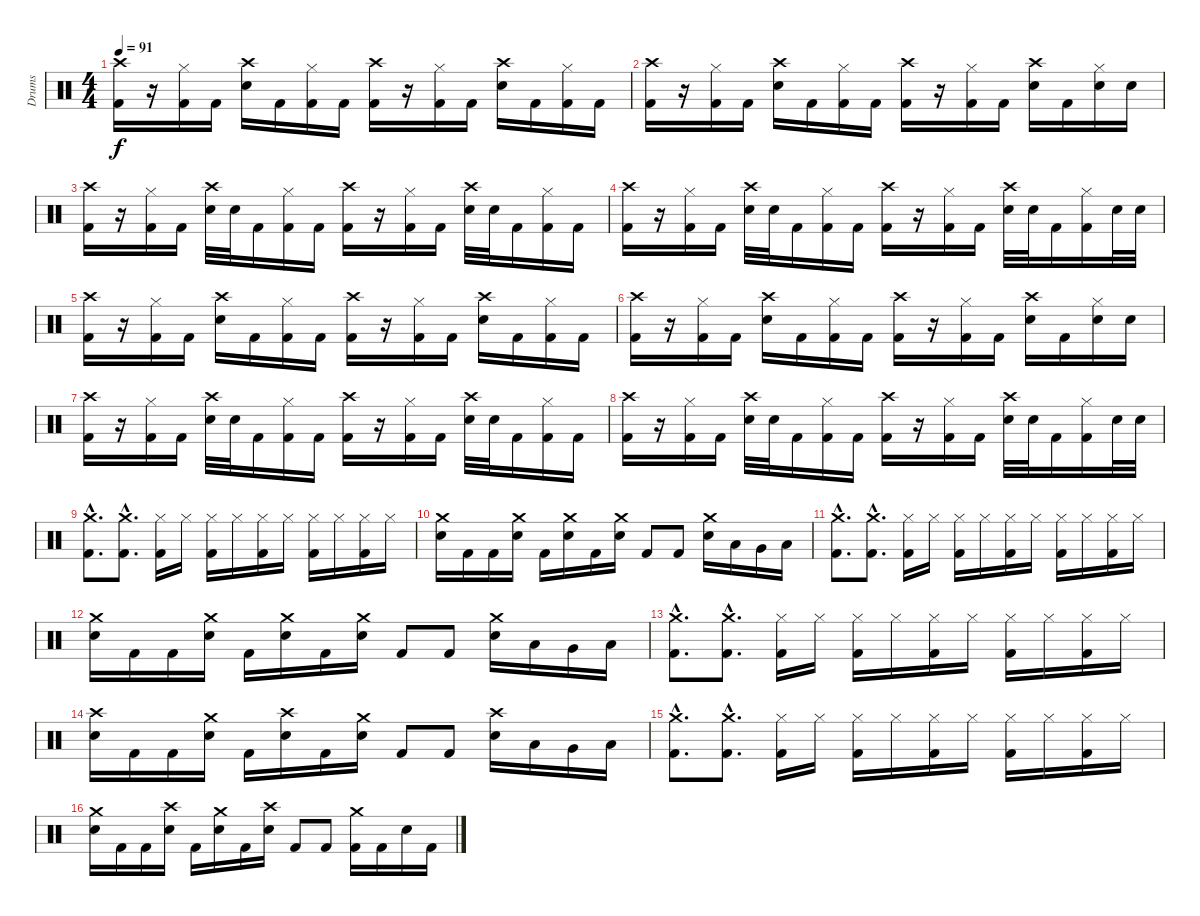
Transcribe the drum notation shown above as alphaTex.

\track ("Drums" "Drums") {instrument percussion}
\staff {score}
\articulation defaults
\ts (4 4)
\tempo 91
\clef neutral
\ks c
("Crash high (hit)" "Kick (hit) 2").16{dy f} r.16 ("Hi-Hat (closed)" "Kick (hit) 2").16 "Kick (hit) 2".16 ("Crash high (hit)" "Electric Snare (hit)").16 "Kick (hit) 2".16 ("Hi-Hat (closed)" "Kick (hit) 2").16 "Kick (hit) 2".16 ("Crash high (hit)" "Kick (hit) 2").16 r.16 ("Hi-Hat (closed)" "Kick (hit) 2").16 "Kick (hit) 2".16 ("Crash high (hit)" "Electric Snare (hit)").16 "Kick (hit) 2".16 ("Hi-Hat (closed)" "Kick (hit) 2").16 "Kick (hit) 2".16 |
("Crash high (hit)" "Kick (hit) 2").16 r.16 ("Hi-Hat (closed)" "Kick (hit) 2").16 "Kick (hit) 2".16 ("Crash high (hit)" "Electric Snare (hit)").16 "Kick (hit) 2".16 ("Hi-Hat (closed)" "Kick (hit) 2").16 "Kick (hit) 2".16 ("Crash high (hit)" "Kick (hit) 2").16 r.16 ("Hi-Hat (closed)" "Kick (hit) 2").16 "Kick (hit) 2".16 ("Crash high (hit)" "Electric Snare (hit)").16 "Kick (hit) 2".16 ("Hi-Hat (closed)" "Electric Snare (hit)").16 "Electric Snare (hit)".16 |
("Crash high (hit)" "Kick (hit) 2").16 r.16 ("Hi-Hat (closed)" "Kick (hit) 2").16 "Kick (hit) 2".16 ("Crash high (hit)" "Electric Snare (hit)").32 "Electric Snare (hit)".32 "Kick (hit) 2".16 ("Hi-Hat (closed)" "Kick (hit) 2").16 "Kick (hit) 2".16 ("Crash high (hit)" "Kick (hit) 2").16 r.16 ("Hi-Hat (closed)" "Kick (hit) 2").16 "Kick (hit) 2".16 ("Crash high (hit)" "Electric Snare (hit)").32 "Electric Snare (hit)".32 "Kick (hit) 2".16 ("Hi-Hat (closed)" "Kick (hit) 2").16 "Kick (hit) 2".16 |
("Crash high (hit)" "Kick (hit) 2").16 r.16 ("Hi-Hat (closed)" "Kick (hit) 2").16 "Kick (hit) 2".16 ("Crash high (hit)" "Electric Snare (hit)").32 "Electric Snare (hit)".32 "Kick (hit) 2".16 ("Hi-Hat (closed)" "Kick (hit) 2").16 "Kick (hit) 2".16 ("Crash high (hit)" "Kick (hit) 2").16 r.16 ("Hi-Hat (closed)" "Kick (hit) 2").16 "Kick (hit) 2".16 ("Crash high (hit)" "Electric Snare (hit)").32 "Electric Snare (hit)".32 "Kick (hit) 2".16 ("Hi-Hat (closed)" "Kick (hit) 2").16 "Electric Snare (hit)".32 "Electric Snare (hit)".32 |
("Crash high (hit)" "Kick (hit) 2").16 r.16 ("Hi-Hat (closed)" "Kick (hit) 2").16 "Kick (hit) 2".16 ("Crash high (hit)" "Electric Snare (hit)").16 "Kick (hit) 2".16 ("Hi-Hat (closed)" "Kick (hit) 2").16 "Kick (hit) 2".16 ("Crash high (hit)" "Kick (hit) 2").16 r.16 ("Hi-Hat (closed)" "Kick (hit) 2").16 "Kick (hit) 2".16 ("Crash high (hit)" "Electric Snare (hit)").16 "Kick (hit) 2".16 ("Hi-Hat (closed)" "Kick (hit) 2").16 "Kick (hit) 2".16 |
("Crash high (hit)" "Kick (hit) 2").16 r.16 ("Hi-Hat (closed)" "Kick (hit) 2").16 "Kick (hit) 2".16 ("Crash high (hit)" "Electric Snare (hit)").16 "Kick (hit) 2".16 ("Hi-Hat (closed)" "Kick (hit) 2").16 "Kick (hit) 2".16 ("Crash high (hit)" "Kick (hit) 2").16 r.16 ("Hi-Hat (closed)" "Kick (hit) 2").16 "Kick (hit) 2".16 ("Crash high (hit)" "Electric Snare (hit)").16 "Kick (hit) 2".16 ("Hi-Hat (closed)" "Electric Snare (hit)").16 "Electric Snare (hit)".16 |
("Crash high (hit)" "Kick (hit) 2").16 r.16 ("Hi-Hat (closed)" "Kick (hit) 2").16 "Kick (hit) 2".16 ("Crash high (hit)" "Electric Snare (hit)").32 "Electric Snare (hit)".32 "Kick (hit) 2".16 ("Hi-Hat (closed)" "Kick (hit) 2").16 "Kick (hit) 2".16 ("Crash high (hit)" "Kick (hit) 2").16 r.16 ("Hi-Hat (closed)" "Kick (hit) 2").16 "Kick (hit) 2".16 ("Crash high (hit)" "Electric Snare (hit)").32 "Electric Snare (hit)".32 "Kick (hit) 2".16 ("Hi-Hat (closed)" "Kick (hit) 2").16 "Kick (hit) 2".16 |
("Crash high (hit)" "Kick (hit) 2").16 r.16 ("Hi-Hat (closed)" "Kick (hit) 2").16 "Kick (hit) 2".16 ("Crash high (hit)" "Electric Snare (hit)").32 "Electric Snare (hit)".32 "Kick (hit) 2".16 ("Hi-Hat (closed)" "Kick (hit) 2").16 "Kick (hit) 2".16 ("Crash high (hit)" "Kick (hit) 2").16 r.16 ("Hi-Hat (closed)" "Kick (hit) 2").16 "Kick (hit) 2".16 ("Crash high (hit)" "Electric Snare (hit)").32 "Electric Snare (hit)".32 "Kick (hit) 2".16 ("Hi-Hat (closed)" "Kick (hit) 2").16 "Electric Snare (hit)".32 "Electric Snare (hit)".32 |
("Crash medium (hit)"{hac} "Kick (hit) 2"{hac}).8{d} ("Crash medium (hit)"{hac} "Kick (hit) 2"{hac}).8{d} ("Hi-Hat (closed)" "Kick (hit) 2").16 "Hi-Hat (closed)".16 ("Hi-Hat (closed)" "Kick (hit) 2").16 "Hi-Hat (closed)".16 ("Hi-Hat (closed)" "Kick (hit) 2").16 "Hi-Hat (closed)".16 ("Hi-Hat (closed)" "Kick (hit) 2").16 "Hi-Hat (closed)".16 ("Hi-Hat (closed)" "Kick (hit) 2").16 "Hi-Hat (closed)".16 |
("Crash medium (hit)" "Electric Snare (hit)").16 "Kick (hit) 2".16 "Kick (hit) 2".16 ("Crash medium (hit)" "Electric Snare (hit)").16 "Kick (hit) 2".16 ("Crash medium (hit)" "Electric Snare (hit)").16 "Kick (hit) 2".16 ("Crash medium (hit)" "Electric Snare (hit)").16 "Kick (hit) 2".8 "Kick (hit) 2".8 ("Crash medium (hit)" "Electric Snare (hit)").16 "Low Tom (hit)".16 "Very Low Tom (hit)".16 "Low Floor Tom (hit)".16 |
("Crash medium (hit)"{hac} "Kick (hit) 2"{hac}).8{d} ("Crash medium (hit)"{hac} "Kick (hit) 2"{hac}).8{d} ("Hi-Hat (closed)" "Kick (hit) 2").16 "Hi-Hat (closed)".16 ("Hi-Hat (closed)" "Kick (hit) 2").16 "Hi-Hat (closed)".16 ("Hi-Hat (closed)" "Kick (hit) 2").16 "Hi-Hat (closed)".16 ("Hi-Hat (closed)" "Kick (hit) 2").16 "Hi-Hat (closed)".16 ("Hi-Hat (closed)" "Kick (hit) 2").16 "Hi-Hat (closed)".16 |
("Crash medium (hit)" "Electric Snare (hit)").16 "Kick (hit) 2".16 "Kick (hit) 2".16 ("Crash medium (hit)" "Electric Snare (hit)").16 "Kick (hit) 2".16 ("Crash medium (hit)" "Electric Snare (hit)").16 "Kick (hit) 2".16 ("Crash medium (hit)" "Electric Snare (hit)").16 "Kick (hit) 2".8 "Kick (hit) 2".8 ("Crash medium (hit)" "Electric Snare (hit)").16 "Low Tom (hit)".16 "Very Low Tom (hit)".16 "Low Floor Tom (hit)".16 |
("Crash medium (hit)"{hac} "Kick (hit) 2"{hac}).8{d} ("Crash medium (hit)"{hac} "Kick (hit) 2"{hac}).8{d} ("Hi-Hat (closed)" "Kick (hit) 2").16 "Hi-Hat (closed)".16 ("Hi-Hat (closed)" "Kick (hit) 2").16 "Hi-Hat (closed)".16 ("Hi-Hat (closed)" "Kick (hit) 2").16 "Hi-Hat (closed)".16 ("Hi-Hat (closed)" "Kick (hit) 2").16 "Hi-Hat (closed)".16 ("Hi-Hat (closed)" "Kick (hit) 2").16 "Hi-Hat (closed)".16 |
("Crash high (hit)" "Electric Snare (hit)").16 "Kick (hit) 2".16 "Kick (hit) 2".16 ("Crash medium (hit)" "Electric Snare (hit)").16 "Kick (hit) 2".16 ("Crash high (hit)" "Electric Snare (hit)").16 "Kick (hit) 2".16 ("Crash medium (hit)" "Electric Snare (hit)").16 "Kick (hit) 2".8 "Kick (hit) 2".8 ("Crash high (hit)" "Electric Snare (hit)").16 "Low Tom (hit)".16 "Very Low Tom (hit)".16 "Low Floor Tom (hit)".16 |
("Crash medium (hit)"{hac} "Kick (hit) 2"{hac}).8{d} ("Crash medium (hit)"{hac} "Kick (hit) 2"{hac}).8{d} ("Hi-Hat (closed)" "Kick (hit) 2").16 "Hi-Hat (closed)".16 ("Hi-Hat (closed)" "Kick (hit) 2").16 "Hi-Hat (closed)".16 ("Hi-Hat (closed)" "Kick (hit) 2").16 "Hi-Hat (closed)".16 ("Hi-Hat (closed)" "Kick (hit) 2").16 "Hi-Hat (closed)".16 ("Hi-Hat (closed)" "Kick (hit) 2").16 "Hi-Hat (closed)".16 |
("Crash medium (hit)" "Electric Snare (hit)").16 "Kick (hit) 2".16 "Kick (hit) 2".16 ("Crash high (hit)" "Electric Snare (hit)").16 "Kick (hit) 2".16 ("Crash medium (hit)" "Electric Snare (hit)").16 "Kick (hit) 2".16 ("Crash high (hit)" "Electric Snare (hit)").16 "Kick (hit) 2".8 "Kick (hit) 2".8 ("Crash medium (hit)" "Kick (hit) 2").16 "Kick (hit) 2".16 "Electric Snare (hit)".16 "Kick (hit) 2".16
